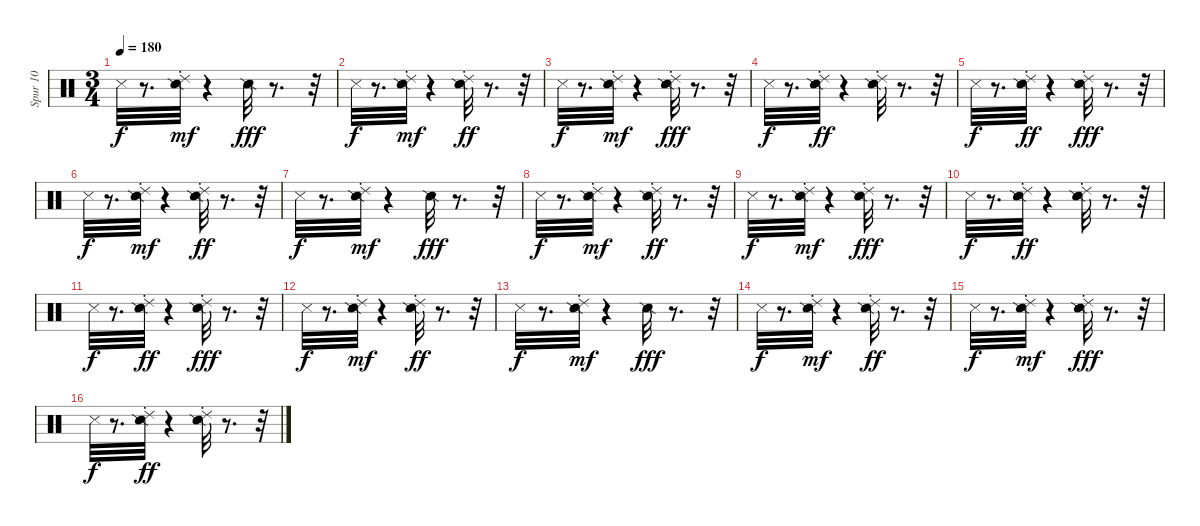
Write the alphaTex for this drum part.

\track ("Spur 10" "Spur 10") {instrument percussion}
\staff {score}
\articulation defaults
\ts (3 4)
\tempo 180
\clef neutral
\ks c "Metronome (hit)".32{dy f}
r.8{d} ("Ride (choke) 2" "Snare (side stick) 2").32{dy mf} r.4 "Snare (side stick) 2".32{dy fff} r.8{d} r.32 |
"Metronome (hit)".32{dy f} r.8{d} ("Ride (choke) 2" "Snare (side stick) 2").32{dy mf} r.4 ("Ride (choke) 2" "Snare (side stick) 2").32{dy ff} r.8{d} r.32 |
"Metronome (hit)".32{dy f} r.8{d} ("Ride (choke) 2" "Snare (side stick) 2").32{dy mf} r.4 ("Ride (choke) 2" "Snare (side stick) 2").32{dy fff} r.8{d} r.32 |
"Metronome (hit)".32{dy f} r.8{d} ("Ride (choke) 2" "Snare (side stick) 2").32{dy ff} r.4 ("Ride (choke) 2" "Snare (side stick) 2").32 r.8{d} r.32 |
"Metronome (hit)".32{dy f} r.8{d} ("Ride (choke) 2" "Snare (side stick) 2").32{dy ff} r.4 ("Ride (choke) 2" "Snare (side stick) 2").32{dy fff} r.8{d} r.32 |
"Metronome (hit)".32{dy f} r.8{d} ("Ride (choke) 2" "Snare (side stick) 2").32{dy mf} r.4 ("Ride (choke) 2" "Snare (side stick) 2").32{dy ff} r.8{d} r.32 |
"Metronome (hit)".32{dy f} r.8{d} ("Ride (choke) 2" "Snare (side stick) 2").32{dy mf} r.4 "Snare (side stick) 2".32{dy fff} r.8{d} r.32 |
"Metronome (hit)".32{dy f} r.8{d} ("Ride (choke) 2" "Snare (side stick) 2").32{dy mf} r.4 ("Ride (choke) 2" "Snare (side stick) 2").32{dy ff} r.8{d} r.32 |
"Metronome (hit)".32{dy f} r.8{d} ("Ride (choke) 2" "Snare (side stick) 2").32{dy mf} r.4 ("Ride (choke) 2" "Snare (side stick) 2").32{dy fff} r.8{d} r.32 |
"Metronome (hit)".32{dy f} r.8{d} ("Ride (choke) 2" "Snare (side stick) 2").32{dy ff} r.4 ("Ride (choke) 2" "Snare (side stick) 2").32 r.8{d} r.32 |
"Metronome (hit)".32{dy f} r.8{d} ("Ride (choke) 2" "Snare (side stick) 2").32{dy ff} r.4 ("Ride (choke) 2" "Snare (side stick) 2").32{dy fff} r.8{d} r.32 |
"Metronome (hit)".32{dy f} r.8{d} ("Ride (choke) 2" "Snare (side stick) 2").32{dy mf} r.4 ("Ride (choke) 2" "Snare (side stick) 2").32{dy ff} r.8{d} r.32 |
"Metronome (hit)".32{dy f} r.8{d} ("Ride (choke) 2" "Snare (side stick) 2").32{dy mf} r.4 "Snare (side stick) 2".32{dy fff} r.8{d} r.32 |
"Metronome (hit)".32{dy f} r.8{d} ("Ride (choke) 2" "Snare (side stick) 2").32{dy mf} r.4 ("Ride (choke) 2" "Snare (side stick) 2").32{dy ff} r.8{d} r.32 |
"Metronome (hit)".32{dy f} r.8{d} ("Ride (choke) 2" "Snare (side stick) 2").32{dy mf} r.4 ("Ride (choke) 2" "Snare (side stick) 2").32{dy fff} r.8{d} r.32 |
"Metronome (hit)".32{dy f} r.8{d} ("Ride (choke) 2" "Snare (side stick) 2").32{dy ff} r.4 ("Ride (choke) 2" "Snare (side stick) 2").32 r.8{d} r.32
